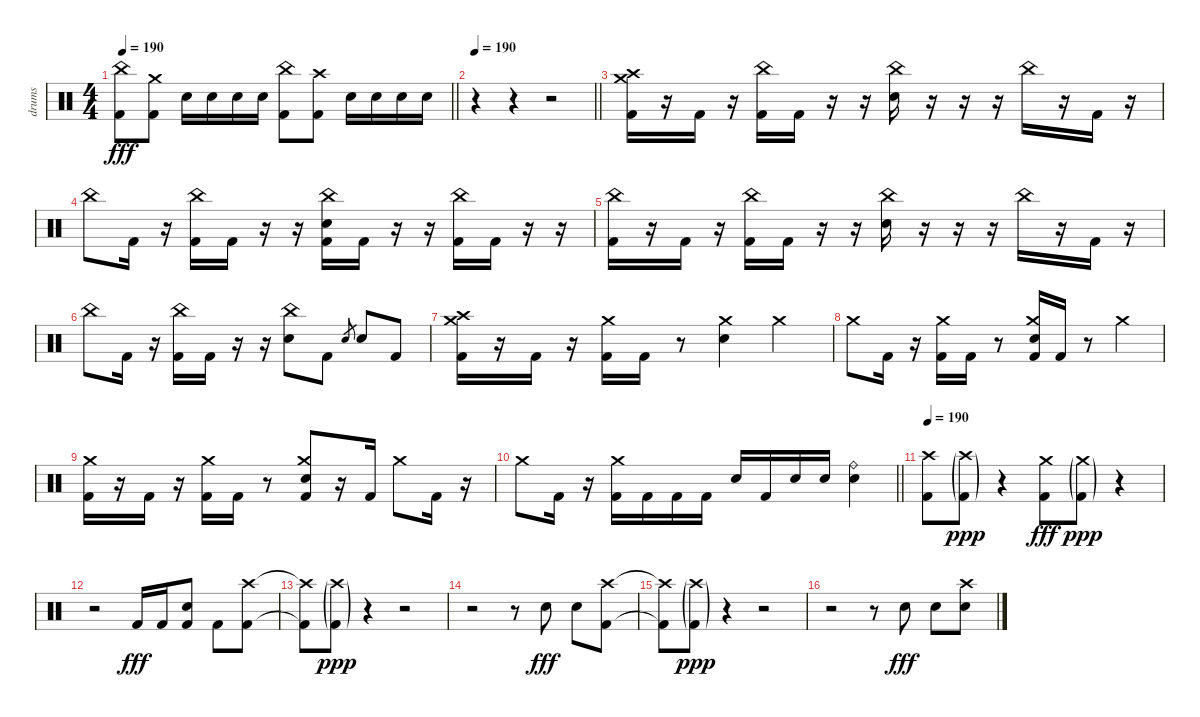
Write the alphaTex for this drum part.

\track ("drums" "drums") {instrument percussion}
\staff {score}
\articulation defaults
\ts (4 4)
\tempo 190
\clef neutral
\barLineRight lightlight
\ks c
("China (hit)" "Kick (hit) 2").8{dy fff} ("Crash medium (hit)" "Kick (hit) 2").8 "Electric Snare (hit)".16 "Electric Snare (hit)".16 "Electric Snare (hit)".16 "Electric Snare (hit)".16 ("China (hit)" "Kick (hit) 2").8 ("Crash high (hit)" "Kick (hit) 2").8 "Electric Snare (hit)".16 "Electric Snare (hit)".16 "Electric Snare (hit)".16 "Electric Snare (hit)".16 |
\tempo 190
\barLineRight lightlight
r.4 r.4 r.2 |
\section ("" "")
("Crash high (hit)" "Crash medium (hit)" "Kick (hit) 2").16 r.16 "Kick (hit) 2".16 r.16 ("China (hit)" "Kick (hit) 2").16 "Kick (hit) 2".16 r.16 r.16 ("China (hit)" "Electric Snare (hit)").16 r.16 r.16 r.16 "China (hit)".16 r.16 "Kick (hit) 2".16 r.16 |
"China (hit)".8 "Kick (hit) 2".16 r.16 ("China (hit)" "Kick (hit) 2").16 "Kick (hit) 2".16 r.16 r.16 ("China (hit)" "Electric Snare (hit)" "Kick (hit) 2").16 "Kick (hit) 2".16 r.16 r.16 ("China (hit)" "Kick (hit) 2").16 "Kick (hit) 2".16 r.16 r.16 |
("China (hit)" "Kick (hit) 2").16 r.16 "Kick (hit) 2".16 r.16 ("China (hit)" "Kick (hit) 2").16 "Kick (hit) 2".16 r.16 r.16 ("China (hit)" "Electric Snare (hit)").16 r.16 r.16 r.16 "China (hit)".16 r.16 "Kick (hit) 2".16 r.16 |
"China (hit)".8 "Kick (hit) 2".16 r.16 ("China (hit)" "Kick (hit) 2").16 "Kick (hit) 2".16 r.16 r.16 ("China (hit)" "Electric Snare (hit)").8 "Kick (hit) 2".8 "Electric Snare (hit)".8{gr} "Electric Snare (hit)".8 "Kick (hit) 2".8 |
("Crash high (hit)" "Crash medium (hit)" "Kick (hit) 2").16 r.16 "Kick (hit) 2".16 r.16 ("Crash medium (hit)" "Kick (hit) 2").16 "Kick (hit) 2".16 r.8 ("Crash medium (hit)" "Electric Snare (hit)").4 "Crash medium (hit)".4 |
"Crash medium (hit)".8 "Kick (hit) 2".16 r.16 ("Crash medium (hit)" "Kick (hit) 2").16 "Kick (hit) 2".16 r.8 ("Crash medium (hit)" "Electric Snare (hit)" "Kick (hit) 2").16 "Kick (hit) 2".16 r.8 "Crash medium (hit)".4 |
("Crash medium (hit)" "Kick (hit) 2").16 r.16 "Kick (hit) 2".16 r.16 ("Crash medium (hit)" "Kick (hit) 2").16 "Kick (hit) 2".16 r.8 ("Crash medium (hit)" "Electric Snare (hit)" "Kick (hit) 2").8 r.16 "Kick (hit) 2".16 "Crash medium (hit)".8 "Kick (hit) 2".16 r.16 |
\barLineRight lightlight "Crash medium (hit)".8 "Kick (hit) 2".16
r.16 ("Crash medium (hit)" "Kick (hit) 2").16 "Kick (hit) 2".16 "Kick (hit) 2".16 "Kick (hit) 2".16 "Electric Snare (hit)".16 "Kick (hit) 2".16 "Electric Snare (hit)".16 "Electric Snare (hit)".16 ("Ride (bell)" "Electric Snare (hit)").4 |
\section ("" "")
\tempo 190
("Crash high (hit)" "Kick (hit) 2").8 ("Crash high (hit)"{g} "Kick (hit) 2"{g}).8{dy ppp} r.4 ("Crash medium (hit)" "Kick (hit) 2").8{dy fff} ("Crash medium (hit)"{g} "Kick (hit) 2"{g}).8{dy ppp} r.4 |
r.2 "Kick (hit) 2".16{dy fff} "Kick (hit) 2".16 ("Electric Snare (hit)" "Kick (hit) 2").8 "Kick (hit) 2".8 ("Crash high (hit)" "Kick (hit) 2").8 |
("Crash high (hit)"{t} "Kick (hit) 2"{t}).8 ("Crash high (hit)"{g} "Kick (hit) 2"{g}).8{dy ppp} r.4 r.2 |
r.2 r.8 "Electric Snare (hit)".8{dy fff} "Electric Snare (hit)".8 ("Crash high (hit)" "Kick (hit) 2").8 |
("Crash high (hit)"{t} "Kick (hit) 2"{t}).8 ("Crash high (hit)"{g} "Kick (hit) 2"{g}).8{dy ppp} r.4 r.2 |
r.2 r.8 "Electric Snare (hit)".8{dy fff} "Electric Snare (hit)".8 ("Crash high (hit)" "Electric Snare (hit)").8
